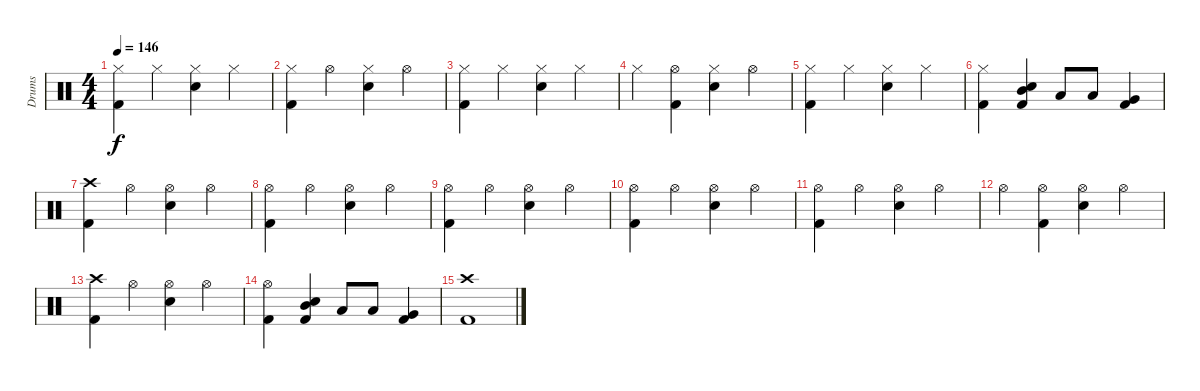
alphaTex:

\track ("Drums" "Drums") {instrument percussion}
\staff {score}
\articulation defaults
\ts (4 4)
\tempo 146
\clef neutral
\ks c
("Hi-Hat (closed)" "Kick (hit) 2").4{dy f} "Hi-Hat (closed)".4 ("Hi-Hat (closed)" "Snare (hit) 2").4 "Hi-Hat (closed)".4 |
("Hi-Hat (closed)" "Kick (hit) 2").4 "Hi-Hat (open)".4 ("Hi-Hat (closed)" "Snare (hit) 2").4 "Hi-Hat (open)".4 |
("Hi-Hat (closed)" "Kick (hit) 2").4 "Hi-Hat (closed)".4 ("Hi-Hat (closed)" "Snare (hit) 2").4 "Hi-Hat (closed)".4 |
"Hi-Hat (closed)".4 ("Hi-Hat (open)" "Kick (hit) 2").4 ("Hi-Hat (closed)" "Snare (hit) 2").4 "Hi-Hat (open)".4 |
("Hi-Hat (closed)" "Kick (hit) 2").4 "Hi-Hat (closed)".4 ("Hi-Hat (closed)" "Snare (hit) 2").4 "Hi-Hat (closed)".4 |
("Hi-Hat (closed)" "Kick (hit) 2").4 ("Snare (hit) 2" "Mid Tom (hit)" "Kick (hit) 2").4 "Low Tom (hit)".8 "Low Tom (hit)".8 ("Very Low Tom (hit)" "Kick (hit) 2").4 |
("Crash high (hit)" "Kick (hit) 2").4 "Hi-Hat (open)".4 ("Hi-Hat (open)" "Snare (hit) 2").4 "Hi-Hat (open)".4 |
("Hi-Hat (open)" "Kick (hit) 2").4 "Hi-Hat (open)".4 ("Hi-Hat (open)" "Snare (hit) 2").4 "Hi-Hat (open)".4 |
("Hi-Hat (open)" "Kick (hit) 2").4 "Hi-Hat (open)".4 ("Hi-Hat (open)" "Snare (hit) 2").4 "Hi-Hat (open)".4 |
("Hi-Hat (open)" "Kick (hit) 2").4 "Hi-Hat (open)".4 ("Hi-Hat (open)" "Snare (hit) 2").4 "Hi-Hat (open)".4 |
("Hi-Hat (open)" "Kick (hit) 2").4 "Hi-Hat (open)".4 ("Hi-Hat (open)" "Snare (hit) 2").4 "Hi-Hat (open)".4 |
"Hi-Hat (open)".4 ("Hi-Hat (open)" "Kick (hit) 2").4 ("Hi-Hat (open)" "Snare (hit) 2").4 "Hi-Hat (open)".4 |
("Crash high (hit)" "Kick (hit) 2").4 "Hi-Hat (open)".4 ("Hi-Hat (open)" "Snare (hit) 2").4 "Hi-Hat (open)".4 |
("Hi-Hat (open)" "Kick (hit) 2").4 ("Snare (hit) 2" "Mid Tom (hit)" "Kick (hit) 2").4 "Low Tom (hit)".8 "Low Tom (hit)".8 ("Very Low Tom (hit)" "Kick (hit) 2").4 |
("Crash high (hit)" "Kick (hit) 2").1
